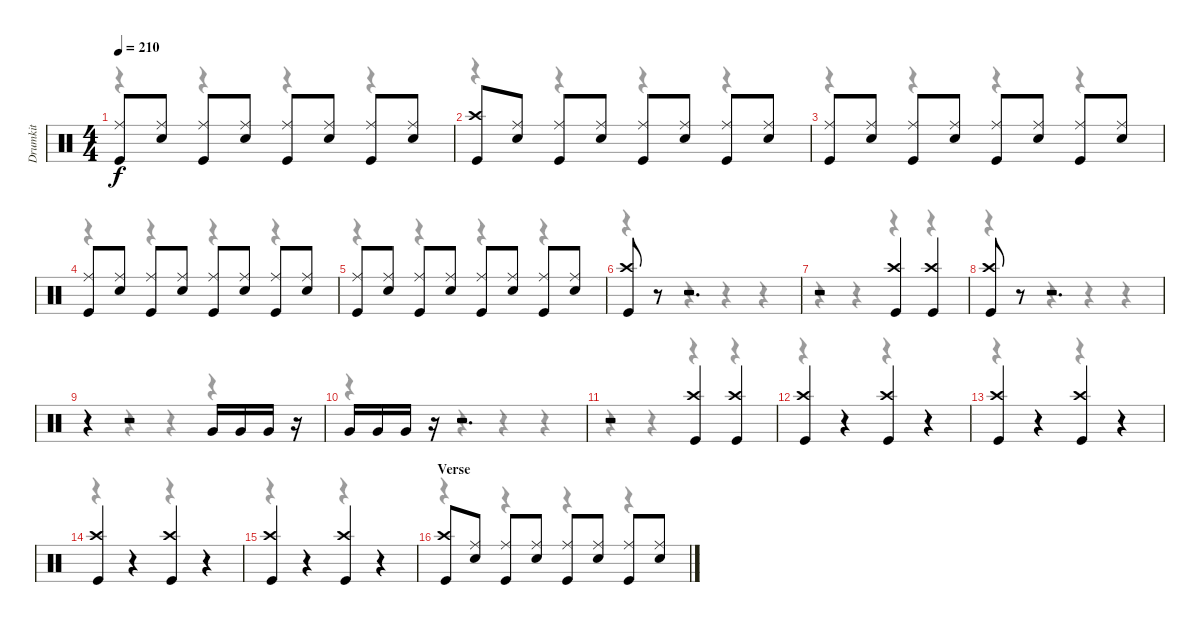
\track ("Drumkit" "Drumkit") {instrument percussion}
\staff {score}
\articulation defaults
\voice
\ts (4 4)
\tempo 210
\clef neutral
\ks c
("Ride (middle)" "Kick (hit)").8{dy f} ("Ride (middle)" "Snare (hit) 2").8 ("Ride (middle)" "Kick (hit)").8 ("Ride (middle)" "Snare (hit) 2").8 ("Ride (middle)" "Kick (hit)").8 ("Ride (middle)" "Snare (hit) 2").8 ("Ride (middle)" "Kick (hit)").8 ("Ride (middle)" "Snare (hit) 2").8 |
("Crash high (hit)" "Kick (hit)").8 ("Ride (middle)" "Snare (hit) 2").8 ("Ride (middle)" "Kick (hit)").8 ("Ride (middle)" "Snare (hit) 2").8 ("Ride (middle)" "Kick (hit)").8 ("Ride (middle)" "Snare (hit) 2").8 ("Ride (middle)" "Kick (hit)").8 ("Ride (middle)" "Snare (hit) 2").8 |
("Ride (middle)" "Kick (hit)").8 ("Ride (middle)" "Snare (hit) 2").8 ("Ride (middle)" "Kick (hit)").8 ("Ride (middle)" "Snare (hit) 2").8 ("Ride (middle)" "Kick (hit)").8 ("Ride (middle)" "Snare (hit) 2").8 ("Ride (middle)" "Kick (hit)").8 ("Ride (middle)" "Snare (hit) 2").8 |
("Ride (middle)" "Kick (hit)").8 ("Ride (middle)" "Snare (hit) 2").8 ("Ride (middle)" "Kick (hit)").8 ("Ride (middle)" "Snare (hit) 2").8 ("Ride (middle)" "Kick (hit)").8 ("Ride (middle)" "Snare (hit) 2").8 ("Ride (middle)" "Kick (hit)").8 ("Ride (middle)" "Snare (hit) 2").8 |
("Ride (middle)" "Kick (hit)").8 ("Ride (middle)" "Snare (hit) 2").8 ("Ride (middle)" "Kick (hit)").8 ("Ride (middle)" "Snare (hit) 2").8 ("Ride (middle)" "Kick (hit)").8 ("Ride (middle)" "Snare (hit) 2").8 ("Ride (middle)" "Kick (hit)").8 ("Ride (middle)" "Snare (hit) 2").8 |
("Crash high (hit)" "Kick (hit)").8 r.8 r.2{d} |
r.2 ("Crash high (hit)" "Kick (hit)").4 ("Crash high (hit)" "Kick (hit)").4 |
("Crash high (hit)" "Kick (hit)").8 r.8 r.2{d} |
r.4 r.2 "Very Low Tom (hit)".16 "Very Low Tom (hit)".16 "Very Low Tom (hit)".16 r.16 |
"Very Low Tom (hit)".16 "Very Low Tom (hit)".16 "Very Low Tom (hit)".16 r.16 r.2{d} |
r.2 ("Crash high (hit)" "Kick (hit)").4 ("Crash high (hit)" "Kick (hit)").4 |
("Crash high (hit)" "Kick (hit)").4 r.4 ("Crash high (hit)" "Kick (hit)").4 r.4 |
("Crash high (hit)" "Kick (hit)").4 r.4 ("Crash high (hit)" "Kick (hit)").4 r.4 |
("Crash high (hit)" "Kick (hit)").4 r.4 ("Crash high (hit)" "Kick (hit)").4 r.4 |
("Crash high (hit)" "Kick (hit)").4 r.4 ("Crash high (hit)" "Kick (hit)").4 r.4 |
\section ("" "Verse")
("Crash high (hit)" "Kick (hit)").8 ("Ride (middle)" "Snare (hit) 2").8 ("Ride (middle)" "Kick (hit)").8 ("Ride (middle)" "Snare (hit) 2").8 ("Ride (middle)" "Kick (hit)").8 ("Ride (middle)" "Snare (hit) 2").8 ("Ride (middle)" "Kick (hit)").8 ("Ride (middle)" "Snare (hit) 2").8
\voice
\clef neutral
\ottava regular
\simile none
\ks c
r.4{dy f} r.4 r.4 r.4 |
r.4 r.4 r.4 r.4 |
r.4 r.4 r.4 r.4 |
r.4 r.4 r.4 r.4 |
r.4 r.4 r.4 r.4 |
r.4 r.4 r.4 r.4 |
r.4 r.4 r.4 r.4 |
r.4 r.4 r.4 r.4 |
r.4 r.4 r.4 r.4 |
r.4 r.4 r.4 r.4 |
r.4 r.4 r.4 r.4 |
r.4 r.4 r.4 r.4 |
r.4 r.4 r.4 r.4 |
r.4 r.4 r.4 r.4 |
r.4 r.4 r.4 r.4 |
r.4 r.4 r.4 r.4
